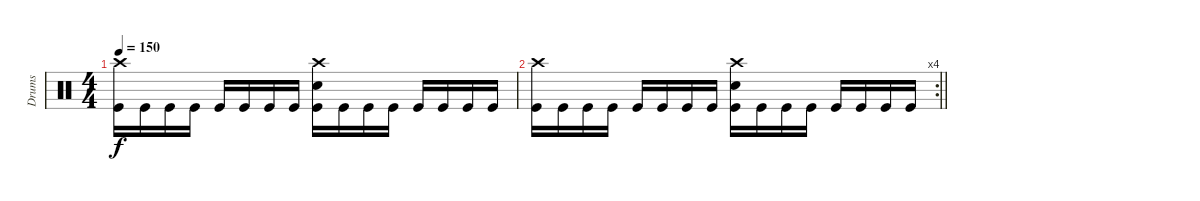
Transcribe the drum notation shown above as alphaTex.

\track ("Drums" "Drums") {instrument percussion}
\staff {score}
\articulation defaults
\ts (4 4)
\tempo 150
\clef neutral
\ks c
("Crash high (hit)" "Kick (hit)").16{dy f} "Kick (hit)".16 "Kick (hit)".16 "Kick (hit)".16 "Kick (hit)".16 "Kick (hit)".16 "Kick (hit)".16 "Kick (hit)".16 ("Electric Snare (hit)" "Crash high (hit)" "Kick (hit)").16 "Kick (hit)".16 "Kick (hit)".16 "Kick (hit)".16 "Kick (hit)".16 "Kick (hit)".16 "Kick (hit)".16 "Kick (hit)".16 |
\rc 4
\barLineRight lightlight
("Crash high (hit)" "Kick (hit)").16 "Kick (hit)".16 "Kick (hit)".16 "Kick (hit)".16 "Kick (hit)".16 "Kick (hit)".16 "Kick (hit)".16 "Kick (hit)".16 ("Electric Snare (hit)" "Crash high (hit)" "Kick (hit)").16 "Kick (hit)".16 "Kick (hit)".16 "Kick (hit)".16 "Kick (hit)".16 "Kick (hit)".16 "Kick (hit)".16 "Kick (hit)".16
